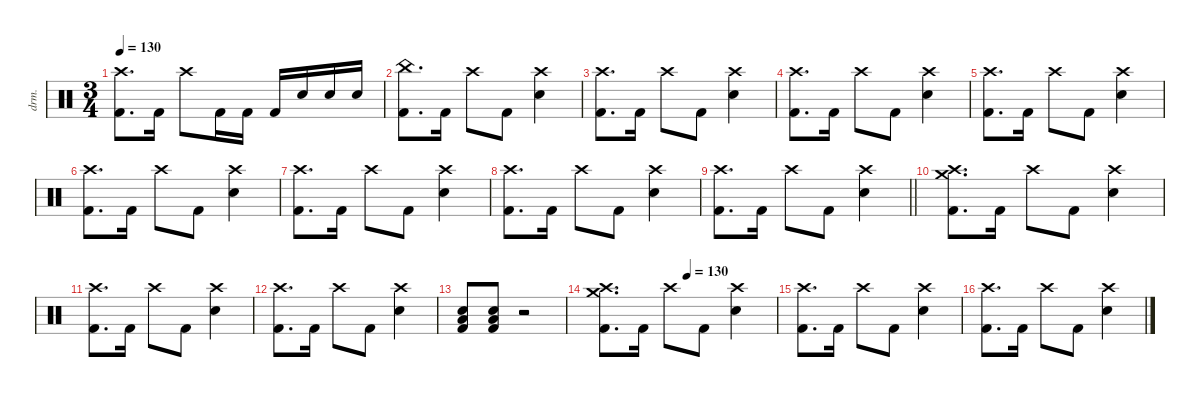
\defaultSystemsLayout 4
\hideDynamics
\bracketExtendMode nobrackets
\otherSystemsTrackNameOrientation horizontal
\track ("Percussion" "drm.") {instrument percussion}
\staff {score}
\articulation defaults
\ts (3 4)
\tempo 130
\clef neutral
\ks c
("Crash high (hit)" "Kick (hit) 2").8{d dy f beam Down} "Kick (hit) 2".16{beam Down} "Crash high (hit)".8{beam Down} "Kick (hit) 2".16{beam Down} "Kick (hit) 2".16{beam Down} "Kick (hit) 2".16{beam Up} "Snare (hit) 2".16{beam Up} "Snare (hit) 2".16{beam Up} "Snare (hit) 2".16{beam Up} |
("China (hit)" "Kick (hit) 2").8{d beam Down} "Kick (hit) 2".16{beam Down} "Crash high (hit)".8{beam Down} "Kick (hit) 2".8{beam Down} ("Crash high (hit)" "Snare (hit) 2").4{beam Down} |
("Crash high (hit)" "Kick (hit) 2").8{d beam Down} "Kick (hit) 2".16{beam Down} "Crash high (hit)".8{beam Down} "Kick (hit) 2".8{beam Down} ("Crash high (hit)" "Snare (hit) 2").4{beam Down} |
("Crash high (hit)" "Kick (hit) 2").8{d beam Down} "Kick (hit) 2".16{beam Down} "Crash high (hit)".8{beam Down} "Kick (hit) 2".8{beam Down} ("Crash high (hit)" "Snare (hit) 2").4{beam Down} |
("Crash high (hit)" "Kick (hit) 2").8{d beam Down} "Kick (hit) 2".16{beam Down} "Crash high (hit)".8{beam Down} "Kick (hit) 2".8{beam Down} ("Crash high (hit)" "Snare (hit) 2").4{beam Down} |
("Crash high (hit)" "Kick (hit) 2").8{d beam Down} "Kick (hit) 2".16{beam Down} "Crash high (hit)".8{beam Down} "Kick (hit) 2".8{beam Down} ("Crash high (hit)" "Snare (hit) 2").4{beam Down} |
("Crash high (hit)" "Kick (hit) 2").8{d beam Down} "Kick (hit) 2".16{beam Down} "Crash high (hit)".8{beam Down} "Kick (hit) 2".8{beam Down} ("Crash high (hit)" "Snare (hit) 2").4{beam Down} |
("Crash high (hit)" "Kick (hit) 2").8{d beam Down} "Kick (hit) 2".16{beam Down} "Crash high (hit)".8{beam Down} "Kick (hit) 2".8{beam Down} ("Crash high (hit)" "Snare (hit) 2").4{beam Down} |
\barLineRight lightlight
("Crash high (hit)" "Kick (hit) 2").8{d beam Down} "Kick (hit) 2".16{beam Down} "Crash high (hit)".8{beam Down} "Kick (hit) 2".8{beam Down} ("Crash high (hit)" "Snare (hit) 2").4{beam Down} |
("Crash medium (hit)" "Crash high (hit)" "Kick (hit) 2").8{d beam Down} "Kick (hit) 2".16{beam Down} "Crash high (hit)".8{beam Down} "Kick (hit) 2".8{beam Down} ("Crash high (hit)" "Snare (hit) 2").4{beam Down} |
("Crash high (hit)" "Kick (hit) 2").8{d beam Down} "Kick (hit) 2".16{beam Down} "Crash high (hit)".8{beam Down} "Kick (hit) 2".8{beam Down} ("Crash high (hit)" "Snare (hit) 2").4{beam Down} |
("Crash high (hit)" "Kick (hit) 2").8{d beam Down} "Kick (hit) 2".16{beam Down} "Crash high (hit)".8{beam Down} "Kick (hit) 2".8{beam Down} ("Crash high (hit)" "Snare (hit) 2").4{beam Down} |
("Low Floor Tom (hit)" "Snare (hit) 2" "Kick (hit) 2").8{beam Up} ("Low Floor Tom (hit)" "Snare (hit) 2" "Kick (hit) 2").8{beam Up} r.2{beam Up} |
\tempo (130 0.5)
("Crash medium (hit)" "Crash high (hit)" "Kick (hit) 2").8{d beam Down} "Kick (hit) 2".16{beam Down} "Crash high (hit)".8{beam Down} "Kick (hit) 2".8{beam Down} ("Crash high (hit)" "Snare (hit) 2").4{beam Down} |
("Crash high (hit)" "Kick (hit) 2").8{d beam Down} "Kick (hit) 2".16{beam Down} "Crash high (hit)".8{beam Down} "Kick (hit) 2".8{beam Down} ("Crash high (hit)" "Snare (hit) 2").4{beam Down} |
("Crash high (hit)" "Kick (hit) 2").8{d beam Down} "Kick (hit) 2".16{beam Down} "Crash high (hit)".8{beam Down} "Kick (hit) 2".8{beam Down} ("Crash high (hit)" "Snare (hit) 2").4{beam Down}
